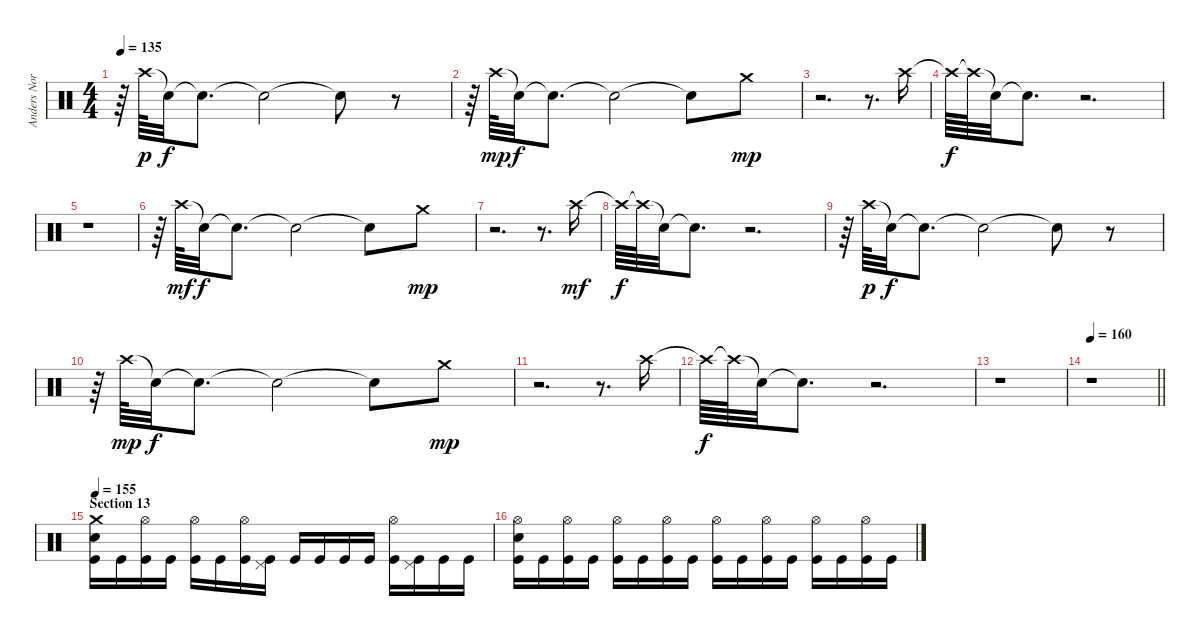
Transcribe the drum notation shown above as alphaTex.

\track ("Anders Nordin" "Anders Nor") {instrument percussion}
\staff {score}
\articulation defaults
\ts (4 4)
\tempo 135
\clef neutral
\ks c
r.64{dy f volume 0} "Crash high (hit)".64{dy p volume 16} "Snare (hit)"{t}.32{dy f} "Snare (hit)"{t}.8{d} "Snare (hit)"{t}.2 "Snare (hit)"{t}.8{volume 0} r.8 |
r.64{volume 0} "Crash high (hit)".64{dy mp volume 16} "Snare (hit)"{t}.32{dy f} "Snare (hit)"{t}.8{d} "Snare (hit)"{t}.2 "Snare (hit)"{t}.8{volume 0} "Crash medium (hit)".8{dy mp volume 16} |
r.2{d} r.8{d volume 0} "Crash high (hit)".16{volume 16} |
"Crash high (hit)"{t}.64{dy f} "Crash high (hit)"{t}.64 "Snare (hit)"{t}.32 "Snare (hit)"{t}.8{d} r.2{d} |
r.1 |
r.64{volume 0} "Crash high (hit)".64{dy mf volume 16} "Snare (hit)"{t}.32{dy f} "Snare (hit)"{t}.8{d} "Snare (hit)"{t}.2 "Snare (hit)"{t}.8{volume 0} "Crash medium (hit)".8{dy mp volume 16} |
r.2{d} r.8{d volume 0} "Crash high (hit)".16{dy mf volume 16} |
"Crash high (hit)"{t}.64{dy f} "Crash high (hit)"{t}.64 "Snare (hit)"{t}.32 "Snare (hit)"{t}.8{d} r.2{d} |
r.64{volume 0} "Crash high (hit)".64{dy p volume 16} "Snare (hit)"{t}.32{dy f} "Snare (hit)"{t}.8{d} "Snare (hit)"{t}.2 "Snare (hit)"{t}.8{volume 0} r.8 |
r.64{volume 0} "Crash high (hit)".64{dy mp volume 16} "Snare (hit)"{t}.32{dy f} "Snare (hit)"{t}.8{d} "Snare (hit)"{t}.2 "Snare (hit)"{t}.8{volume 0} "Crash medium (hit)".8{dy mp volume 16} |
r.2{d} r.8{d volume 0} "Crash high (hit)".16{volume 16} |
"Crash high (hit)"{t}.64{dy f} "Crash high (hit)"{t}.64 "Snare (hit)"{t}.32 "Snare (hit)"{t}.8{d} r.2{d} |
r.1 |
\tempo 160
\barLineRight lightlight
r.1 |
\section ("" "Section 13")
\tempo 155
("Snare (hit) 2" "Crash medium (hit)" "Kick (hit)").16 "Kick (hit)".16 ("Hi-Hat (open)" "Kick (hit)").16 "Kick (hit)".16 ("Hi-Hat (open)" "Kick (hit)").16 "Kick (hit)".16 ("Hi-Hat (open)" "Kick (hit)").16 ("Pedal Hi-Hat (hit)" "Kick (hit)").16 "Kick (hit)".16 "Kick (hit)".16 "Kick (hit)".16 "Kick (hit)".16 ("Hi-Hat (open)" "Kick (hit)").16 ("Pedal Hi-Hat (hit)" "Kick (hit)").16 "Kick (hit)".16 "Kick (hit)".16 |
("Snare (hit) 2" "Hi-Hat (open)" "Kick (hit)").16 "Kick (hit)".16 ("Hi-Hat (open)" "Kick (hit)").16 "Kick (hit)".16 ("Hi-Hat (open)" "Kick (hit)").16 "Kick (hit)".16 ("Hi-Hat (open)" "Kick (hit)").16 "Kick (hit)".16 ("Hi-Hat (open)" "Kick (hit)").16 "Kick (hit)".16 ("Hi-Hat (open)" "Kick (hit)").16 "Kick (hit)".16 ("Hi-Hat (open)" "Kick (hit)").16 "Kick (hit)".16 ("Hi-Hat (open)" "Kick (hit)").16 "Kick (hit)".16
